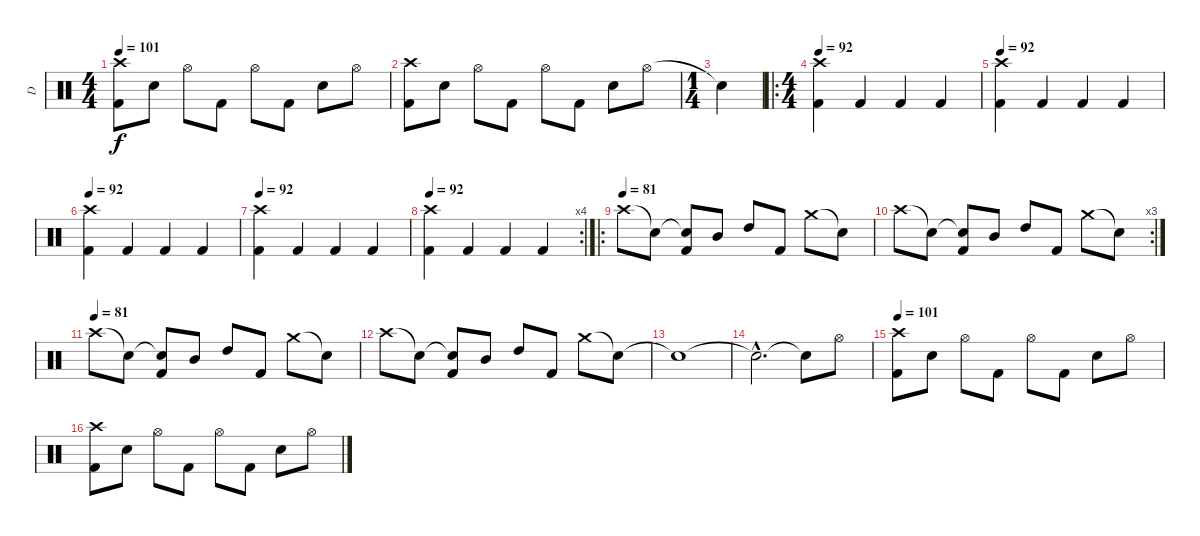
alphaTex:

\track ("D" "D") {instrument percussion}
\staff {score}
\articulation defaults
\ts (4 4)
\tempo 101
\clef neutral
\ks c
("Crash high (hit)" "Kick (hit) 2").8{dy f} "Electric Snare (hit)".8 "Hi-Hat (open)".8 "Kick (hit) 2".8 "Hi-Hat (open)".8 "Kick (hit) 2".8 "Electric Snare (hit)".8 "Hi-Hat (open)".8 |
("Crash high (hit)" "Kick (hit) 2").8 "Electric Snare (hit)".8 "Hi-Hat (open)".8 "Kick (hit) 2".8 "Hi-Hat (open)".8 "Kick (hit) 2".8 "Electric Snare (hit)".8 "Hi-Hat (open)".8 |
\ts (1 4)
"Snare (hit)"{t}.4 |
\ro
\ts (4 4)
\tempo 92
("Crash high (hit)" "Kick (hit) 2").4 "Kick (hit) 2".4 "Kick (hit) 2".4 "Kick (hit) 2".4 |
\tempo 92
("Crash high (hit)" "Kick (hit) 2").4 "Kick (hit) 2".4 "Kick (hit) 2".4 "Kick (hit) 2".4 |
\tempo 92
("Crash high (hit)" "Kick (hit) 2").4 "Kick (hit) 2".4 "Kick (hit) 2".4 "Kick (hit) 2".4 |
\tempo 92
("Crash high (hit)" "Kick (hit) 2").4 "Kick (hit) 2".4 "Kick (hit) 2".4 "Kick (hit) 2".4 |
\rc 4
\tempo 92
("Crash high (hit)" "Kick (hit) 2").4 "Kick (hit) 2".4 "Kick (hit) 2".4 "Kick (hit) 2".4 |
\ro
\tempo (81)
"Crash high (hit)".8 "Snare (hit)"{t}.8 ("Snare (hit)"{t} "Kick (hit) 2").8 "Mid Tom (hit)".8 "High Tom (hit)".8 "Kick (hit) 2".8 "Crash medium (hit)".8 "Snare (hit)"{t}.8 |
\rc 3 "Crash high (hit)".8 "Snare (hit)"{t}.8
("Snare (hit)"{t} "Kick (hit) 2").8 "Mid Tom (hit)".8 "High Tom (hit)".8 "Kick (hit) 2".8 "Crash medium (hit)".8 "Snare (hit)"{t}.8 |
\tempo (81)
"Crash high (hit)".8 "Snare (hit)"{t}.8 ("Snare (hit)"{t} "Kick (hit) 2").8 "Mid Tom (hit)".8 "High Tom (hit)".8 "Kick (hit) 2".8 "Crash medium (hit)".8 "Snare (hit)"{t}.8 |
"Crash high (hit)".8 "Snare (hit)"{t}.8 ("Snare (hit)"{t} "Kick (hit) 2").8 "Mid Tom (hit)".8 "High Tom (hit)".8 "Kick (hit) 2".8 "Crash medium (hit)".8 "Snare (hit)"{t}.8 |
"Snare (hit)"{t}.1 |
"Snare (hit)"{hac t}.2{d} "Snare (hit)"{t}.8 "Hi-Hat (open)".8 |
\tempo 101
("Crash high (hit)" "Kick (hit) 2").8 "Electric Snare (hit)".8 "Hi-Hat (open)".8 "Kick (hit) 2".8 "Hi-Hat (open)".8 "Kick (hit) 2".8 "Electric Snare (hit)".8 "Hi-Hat (open)".8 |
("Crash high (hit)" "Kick (hit) 2").8 "Electric Snare (hit)".8 "Hi-Hat (open)".8 "Kick (hit) 2".8 "Hi-Hat (open)".8 "Kick (hit) 2".8 "Electric Snare (hit)".8 "Hi-Hat (open)".8
